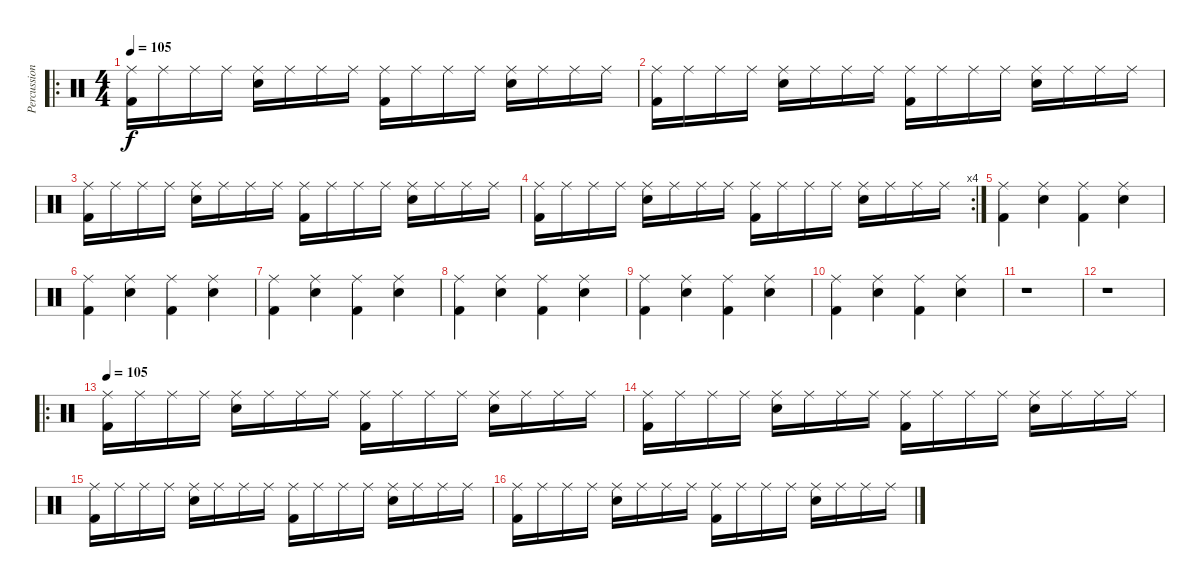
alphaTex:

\track ("Percussions" "Percussion") {instrument percussion}
\staff {score}
\articulation defaults
\ro
\ts (4 4)
\tempo 105
\clef neutral
\ks c
("Ride (middle)" "Kick (hit) 2").16{dy f} "Ride (middle)".16 "Ride (middle)".16 "Ride (middle)".16 ("Ride (middle)" "Electric Snare (hit)").16 "Ride (middle)".16 "Ride (middle)".16 "Ride (middle)".16 ("Ride (middle)" "Kick (hit) 2").16 "Ride (middle)".16 "Ride (middle)".16 "Ride (middle)".16 ("Ride (middle)" "Electric Snare (hit)").16 "Ride (middle)".16 "Ride (middle)".16 "Ride (middle)".16 |
("Ride (middle)" "Kick (hit) 2").16 "Ride (middle)".16 "Ride (middle)".16 "Ride (middle)".16 ("Ride (middle)" "Electric Snare (hit)").16 "Ride (middle)".16 "Ride (middle)".16 "Ride (middle)".16 ("Ride (middle)" "Kick (hit) 2").16 "Ride (middle)".16 "Ride (middle)".16 "Ride (middle)".16 ("Ride (middle)" "Electric Snare (hit)").16 "Ride (middle)".16 "Ride (middle)".16 "Ride (middle)".16 |
("Ride (middle)" "Kick (hit) 2").16 "Ride (middle)".16 "Ride (middle)".16 "Ride (middle)".16 ("Ride (middle)" "Electric Snare (hit)").16 "Ride (middle)".16 "Ride (middle)".16 "Ride (middle)".16 ("Ride (middle)" "Kick (hit) 2").16 "Ride (middle)".16 "Ride (middle)".16 "Ride (middle)".16 ("Ride (middle)" "Electric Snare (hit)").16 "Ride (middle)".16 "Ride (middle)".16 "Ride (middle)".16 |
\rc 4
("Ride (middle)" "Kick (hit) 2").16 "Ride (middle)".16 "Ride (middle)".16 "Ride (middle)".16 ("Ride (middle)" "Electric Snare (hit)").16 "Ride (middle)".16 "Ride (middle)".16 "Ride (middle)".16 ("Ride (middle)" "Kick (hit) 2").16 "Ride (middle)".16 "Ride (middle)".16 "Ride (middle)".16 ("Ride (middle)" "Electric Snare (hit)").16 "Ride (middle)".16 "Ride (middle)".16 "Ride (middle)".16 |
("Ride (middle)" "Kick (hit) 2").4 ("Ride (middle)" "Electric Snare (hit)").4 ("Ride (middle)" "Kick (hit) 2").4 ("Ride (middle)" "Electric Snare (hit)").4 |
("Ride (middle)" "Kick (hit) 2").4 ("Ride (middle)" "Electric Snare (hit)").4 ("Ride (middle)" "Kick (hit) 2").4 ("Ride (middle)" "Electric Snare (hit)").4 |
("Ride (middle)" "Kick (hit) 2").4 ("Ride (middle)" "Electric Snare (hit)").4 ("Ride (middle)" "Kick (hit) 2").4 ("Ride (middle)" "Electric Snare (hit)").4 |
("Ride (middle)" "Kick (hit) 2").4 ("Ride (middle)" "Electric Snare (hit)").4 ("Ride (middle)" "Kick (hit) 2").4 ("Ride (middle)" "Electric Snare (hit)").4 |
("Ride (middle)" "Kick (hit) 2").4 ("Ride (middle)" "Electric Snare (hit)").4 ("Ride (middle)" "Kick (hit) 2").4 ("Ride (middle)" "Electric Snare (hit)").4 |
("Ride (middle)" "Kick (hit) 2").4 ("Ride (middle)" "Electric Snare (hit)").4 ("Ride (middle)" "Kick (hit) 2").4 ("Ride (middle)" "Electric Snare (hit)").4 |
r.1 |
r.1 |
\ro
\tempo 105
("Ride (middle)" "Kick (hit) 2").16 "Ride (middle)".16 "Ride (middle)".16 "Ride (middle)".16 ("Ride (middle)" "Electric Snare (hit)").16 "Ride (middle)".16 "Ride (middle)".16 "Ride (middle)".16 ("Ride (middle)" "Kick (hit) 2").16 "Ride (middle)".16 "Ride (middle)".16 "Ride (middle)".16 ("Ride (middle)" "Electric Snare (hit)").16 "Ride (middle)".16 "Ride (middle)".16 "Ride (middle)".16 |
("Ride (middle)" "Kick (hit) 2").16 "Ride (middle)".16 "Ride (middle)".16 "Ride (middle)".16 ("Ride (middle)" "Electric Snare (hit)").16 "Ride (middle)".16 "Ride (middle)".16 "Ride (middle)".16 ("Ride (middle)" "Kick (hit) 2").16 "Ride (middle)".16 "Ride (middle)".16 "Ride (middle)".16 ("Ride (middle)" "Electric Snare (hit)").16 "Ride (middle)".16 "Ride (middle)".16 "Ride (middle)".16 |
("Ride (middle)" "Kick (hit) 2").16 "Ride (middle)".16 "Ride (middle)".16 "Ride (middle)".16 ("Ride (middle)" "Electric Snare (hit)").16 "Ride (middle)".16 "Ride (middle)".16 "Ride (middle)".16 ("Ride (middle)" "Kick (hit) 2").16 "Ride (middle)".16 "Ride (middle)".16 "Ride (middle)".16 ("Ride (middle)" "Electric Snare (hit)").16 "Ride (middle)".16 "Ride (middle)".16 "Ride (middle)".16 |
("Ride (middle)" "Kick (hit) 2").16 "Ride (middle)".16 "Ride (middle)".16 "Ride (middle)".16 ("Ride (middle)" "Electric Snare (hit)").16 "Ride (middle)".16 "Ride (middle)".16 "Ride (middle)".16 ("Ride (middle)" "Kick (hit) 2").16 "Ride (middle)".16 "Ride (middle)".16 "Ride (middle)".16 ("Ride (middle)" "Electric Snare (hit)").16 "Ride (middle)".16 "Ride (middle)".16 "Ride (middle)".16
